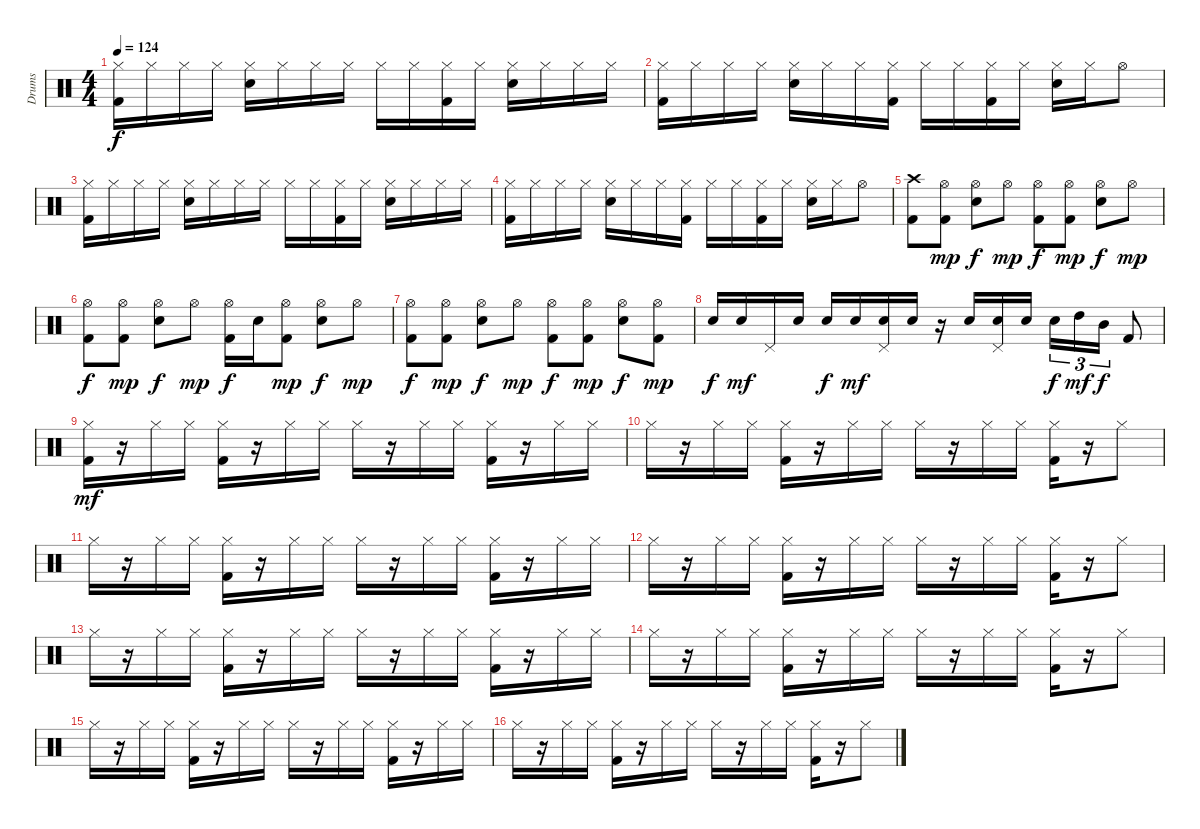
\track ("Drums" "Drums") {instrument percussion}
\staff {score}
\articulation defaults
\ts (4 4)
\tempo 124
\clef neutral
\ks c
("Hi-Hat (closed)" "Kick (hit) 2").16{dy f} "Hi-Hat (closed)".16 "Hi-Hat (closed)".16 "Hi-Hat (closed)".16 ("Hi-Hat (closed)" "Electric Snare (hit)").16 "Hi-Hat (closed)".16 "Hi-Hat (closed)".16 "Hi-Hat (closed)".16 "Hi-Hat (closed)".16 "Hi-Hat (closed)".16 ("Hi-Hat (closed)" "Kick (hit) 2").16 "Hi-Hat (closed)".16 ("Hi-Hat (closed)" "Electric Snare (hit)").16 "Hi-Hat (closed)".16 "Hi-Hat (closed)".16 "Hi-Hat (closed)".16 |
("Hi-Hat (closed)" "Kick (hit) 2").16 "Hi-Hat (closed)".16 "Hi-Hat (closed)".16 "Hi-Hat (closed)".16 ("Hi-Hat (closed)" "Electric Snare (hit)").16 "Hi-Hat (closed)".16 "Hi-Hat (closed)".16 ("Hi-Hat (closed)" "Kick (hit) 2").16 "Hi-Hat (closed)".16 "Hi-Hat (closed)".16 ("Hi-Hat (closed)" "Kick (hit) 2").16 "Hi-Hat (closed)".16 ("Hi-Hat (closed)" "Electric Snare (hit)").16 "Hi-Hat (closed)".16 "Hi-Hat (open)".8 |
("Hi-Hat (closed)" "Kick (hit) 2").16 "Hi-Hat (closed)".16 "Hi-Hat (closed)".16 "Hi-Hat (closed)".16 ("Hi-Hat (closed)" "Electric Snare (hit)").16 "Hi-Hat (closed)".16 "Hi-Hat (closed)".16 "Hi-Hat (closed)".16 "Hi-Hat (closed)".16 "Hi-Hat (closed)".16 ("Hi-Hat (closed)" "Kick (hit) 2").16 "Hi-Hat (closed)".16 ("Hi-Hat (closed)" "Electric Snare (hit)").16 "Hi-Hat (closed)".16 "Hi-Hat (closed)".16 "Hi-Hat (closed)".16 |
("Hi-Hat (closed)" "Kick (hit) 2").16 "Hi-Hat (closed)".16 "Hi-Hat (closed)".16 "Hi-Hat (closed)".16 ("Hi-Hat (closed)" "Electric Snare (hit)").16 "Hi-Hat (closed)".16 "Hi-Hat (closed)".16 ("Hi-Hat (closed)" "Kick (hit) 2").16 "Hi-Hat (closed)".16 "Hi-Hat (closed)".16 ("Hi-Hat (closed)" "Kick (hit) 2").16 "Hi-Hat (closed)".16 ("Hi-Hat (closed)" "Electric Snare (hit)").16 "Hi-Hat (closed)".16 "Hi-Hat (open)".8 |
("Crash high (hit)" "Kick (hit) 2").8 ("Hi-Hat (open)" "Kick (hit) 2").8{dy mp} ("Hi-Hat (open)" "Electric Snare (hit)").8{dy f} "Hi-Hat (open)".8{dy mp} ("Hi-Hat (open)" "Kick (hit) 2").8{dy f} ("Hi-Hat (open)" "Kick (hit) 2").8{dy mp} ("Hi-Hat (open)" "Electric Snare (hit)").8{dy f} "Hi-Hat (open)".8{dy mp} |
("Hi-Hat (open)" "Kick (hit) 2").8{dy f} ("Hi-Hat (open)" "Kick (hit) 2").8{dy mp} ("Hi-Hat (open)" "Electric Snare (hit)").8{dy f} "Hi-Hat (open)".8{dy mp} ("Hi-Hat (open)" "Kick (hit) 2").16{dy f} "Electric Snare (hit)".16 ("Hi-Hat (open)" "Kick (hit) 2").8{dy mp} ("Hi-Hat (open)" "Electric Snare (hit)").8{dy f} "Hi-Hat (open)".8{dy mp} |
("Hi-Hat (open)" "Kick (hit) 2").8{dy f} ("Hi-Hat (open)" "Kick (hit) 2").8{dy mp} ("Hi-Hat (open)" "Electric Snare (hit)").8{dy f} "Hi-Hat (open)".8{dy mp} ("Hi-Hat (open)" "Kick (hit) 2").8{dy f} ("Hi-Hat (open)" "Kick (hit) 2").8{dy mp} ("Hi-Hat (open)" "Electric Snare (hit)").8{dy f} ("Hi-Hat (open)" "Kick (hit) 2").8{dy mp} |
"Electric Snare (hit)".16{dy f} "Electric Snare (hit)".16{dy mf} "Pedal Hi-Hat (hit)".16 "Electric Snare (hit)".16 "Electric Snare (hit)".16{dy f} "Electric Snare (hit)".16{dy mf} ("Pedal Hi-Hat (hit)" "Electric Snare (hit)").16 "Electric Snare (hit)".16 r.16 "Electric Snare (hit)".16 ("Pedal Hi-Hat (hit)" "Electric Snare (hit)").16 "Electric Snare (hit)".16 "Electric Snare (hit)".16{tu (3 2) dy f} "High Tom (hit)".16{tu (3 2) dy mf} "Mid Tom (hit)".16{tu (3 2) dy f} "Kick (hit) 2".8 |
("Hi-Hat (closed)" "Kick (hit) 2").16{dy mf} r.16 "Hi-Hat (closed)".16 "Hi-Hat (closed)".16 ("Hi-Hat (closed)" "Kick (hit) 2").16 r.16 "Hi-Hat (closed)".16 "Hi-Hat (closed)".16 "Hi-Hat (closed)".16 r.16 "Hi-Hat (closed)".16 "Hi-Hat (closed)".16 ("Hi-Hat (closed)" "Kick (hit) 2").16 r.16 "Hi-Hat (closed)".16 "Hi-Hat (closed)".16 |
"Hi-Hat (closed)".16 r.16 "Hi-Hat (closed)".16 "Hi-Hat (closed)".16 ("Hi-Hat (closed)" "Kick (hit) 2").16 r.16 "Hi-Hat (closed)".16 "Hi-Hat (closed)".16 "Hi-Hat (closed)".16 r.16 "Hi-Hat (closed)".16 "Hi-Hat (closed)".16 ("Hi-Hat (closed)" "Kick (hit) 2").16 r.16 "Hi-Hat (closed)".8 |
"Hi-Hat (closed)".16 r.16 "Hi-Hat (closed)".16 "Hi-Hat (closed)".16 ("Hi-Hat (closed)" "Kick (hit) 2").16 r.16 "Hi-Hat (closed)".16 "Hi-Hat (closed)".16 "Hi-Hat (closed)".16 r.16 "Hi-Hat (closed)".16 "Hi-Hat (closed)".16 ("Hi-Hat (closed)" "Kick (hit) 2").16 r.16 "Hi-Hat (closed)".16 "Hi-Hat (closed)".16 |
"Hi-Hat (closed)".16 r.16 "Hi-Hat (closed)".16 "Hi-Hat (closed)".16 ("Hi-Hat (closed)" "Kick (hit) 2").16 r.16 "Hi-Hat (closed)".16 "Hi-Hat (closed)".16 "Hi-Hat (closed)".16 r.16 "Hi-Hat (closed)".16 "Hi-Hat (closed)".16 ("Hi-Hat (closed)" "Kick (hit) 2").16 r.16 "Hi-Hat (closed)".8 |
"Hi-Hat (closed)".16 r.16 "Hi-Hat (closed)".16 "Hi-Hat (closed)".16 ("Hi-Hat (closed)" "Kick (hit) 2").16 r.16 "Hi-Hat (closed)".16 "Hi-Hat (closed)".16 "Hi-Hat (closed)".16 r.16 "Hi-Hat (closed)".16 "Hi-Hat (closed)".16 ("Hi-Hat (closed)" "Kick (hit) 2").16 r.16 "Hi-Hat (closed)".16 "Hi-Hat (closed)".16 |
"Hi-Hat (closed)".16 r.16 "Hi-Hat (closed)".16 "Hi-Hat (closed)".16 ("Hi-Hat (closed)" "Kick (hit) 2").16 r.16 "Hi-Hat (closed)".16 "Hi-Hat (closed)".16 "Hi-Hat (closed)".16 r.16 "Hi-Hat (closed)".16 "Hi-Hat (closed)".16 ("Hi-Hat (closed)" "Kick (hit) 2").16 r.16 "Hi-Hat (closed)".8 |
"Hi-Hat (closed)".16 r.16 "Hi-Hat (closed)".16 "Hi-Hat (closed)".16 ("Hi-Hat (closed)" "Kick (hit) 2").16 r.16 "Hi-Hat (closed)".16 "Hi-Hat (closed)".16 "Hi-Hat (closed)".16 r.16 "Hi-Hat (closed)".16 "Hi-Hat (closed)".16 ("Hi-Hat (closed)" "Kick (hit) 2").16 r.16 "Hi-Hat (closed)".16 "Hi-Hat (closed)".16 |
"Hi-Hat (closed)".16 r.16 "Hi-Hat (closed)".16 "Hi-Hat (closed)".16 ("Hi-Hat (closed)" "Kick (hit) 2").16 r.16 "Hi-Hat (closed)".16 "Hi-Hat (closed)".16 "Hi-Hat (closed)".16 r.16 "Hi-Hat (closed)".16 "Hi-Hat (closed)".16 ("Hi-Hat (closed)" "Kick (hit) 2").16 r.16 "Hi-Hat (closed)".8
